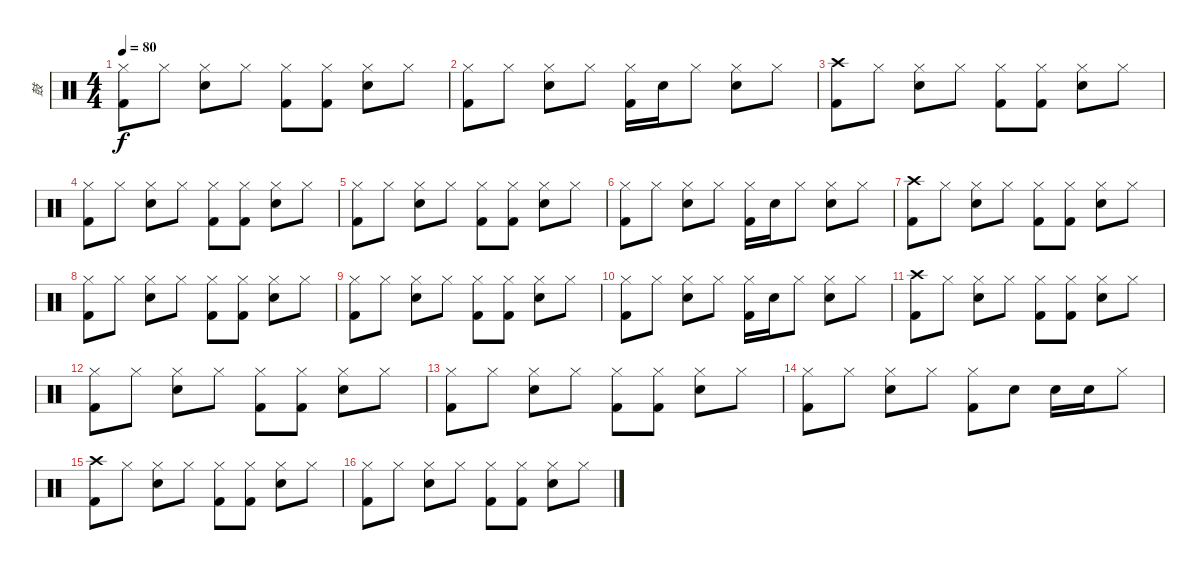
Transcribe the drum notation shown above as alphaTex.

\track ("鼓" "鼓") {instrument percussion}
\staff {score}
\articulation defaults
\ts (4 4)
\tempo 80
\clef neutral
\ks c
("Hi-Hat (closed)" "Kick (hit) 2").8{dy f} "Hi-Hat (closed)".8 ("Hi-Hat (closed)" "Electric Snare (hit)").8 "Hi-Hat (closed)".8 ("Hi-Hat (closed)" "Kick (hit) 2").8 ("Hi-Hat (closed)" "Kick (hit) 2").8 ("Hi-Hat (closed)" "Electric Snare (hit)").8 "Hi-Hat (closed)".8 |
("Hi-Hat (closed)" "Kick (hit) 2").8 "Hi-Hat (closed)".8 ("Hi-Hat (closed)" "Electric Snare (hit)").8 "Hi-Hat (closed)".8 ("Hi-Hat (closed)" "Kick (hit) 2").16 "Electric Snare (hit)".16 "Hi-Hat (closed)".8 ("Hi-Hat (closed)" "Electric Snare (hit)").8 "Hi-Hat (closed)".8 |
("Crash high (hit)" "Kick (hit) 2").8 "Hi-Hat (closed)".8 ("Hi-Hat (closed)" "Electric Snare (hit)").8 "Hi-Hat (closed)".8 ("Hi-Hat (closed)" "Kick (hit) 2").8 ("Hi-Hat (closed)" "Kick (hit) 2").8 ("Hi-Hat (closed)" "Electric Snare (hit)").8 "Hi-Hat (closed)".8 |
("Hi-Hat (closed)" "Kick (hit) 2").8 "Hi-Hat (closed)".8 ("Hi-Hat (closed)" "Electric Snare (hit)").8 "Hi-Hat (closed)".8 ("Hi-Hat (closed)" "Kick (hit) 2").8 ("Hi-Hat (closed)" "Kick (hit) 2").8 ("Hi-Hat (closed)" "Electric Snare (hit)").8 "Hi-Hat (closed)".8 |
("Hi-Hat (closed)" "Kick (hit) 2").8 "Hi-Hat (closed)".8 ("Hi-Hat (closed)" "Electric Snare (hit)").8 "Hi-Hat (closed)".8 ("Hi-Hat (closed)" "Kick (hit) 2").8 ("Hi-Hat (closed)" "Kick (hit) 2").8 ("Hi-Hat (closed)" "Electric Snare (hit)").8 "Hi-Hat (closed)".8 |
("Hi-Hat (closed)" "Kick (hit) 2").8 "Hi-Hat (closed)".8 ("Hi-Hat (closed)" "Electric Snare (hit)").8 "Hi-Hat (closed)".8 ("Hi-Hat (closed)" "Kick (hit) 2").16 "Electric Snare (hit)".16 "Hi-Hat (closed)".8 ("Hi-Hat (closed)" "Electric Snare (hit)").8 "Hi-Hat (closed)".8 |
("Crash high (hit)" "Kick (hit) 2").8 "Hi-Hat (closed)".8 ("Hi-Hat (closed)" "Electric Snare (hit)").8 "Hi-Hat (closed)".8 ("Hi-Hat (closed)" "Kick (hit) 2").8 ("Hi-Hat (closed)" "Kick (hit) 2").8 ("Hi-Hat (closed)" "Electric Snare (hit)").8 "Hi-Hat (closed)".8 |
("Hi-Hat (closed)" "Kick (hit) 2").8 "Hi-Hat (closed)".8 ("Hi-Hat (closed)" "Electric Snare (hit)").8 "Hi-Hat (closed)".8 ("Hi-Hat (closed)" "Kick (hit) 2").8 ("Hi-Hat (closed)" "Kick (hit) 2").8 ("Hi-Hat (closed)" "Electric Snare (hit)").8 "Hi-Hat (closed)".8 |
("Hi-Hat (closed)" "Kick (hit) 2").8 "Hi-Hat (closed)".8 ("Hi-Hat (closed)" "Electric Snare (hit)").8 "Hi-Hat (closed)".8 ("Hi-Hat (closed)" "Kick (hit) 2").8 ("Hi-Hat (closed)" "Kick (hit) 2").8 ("Hi-Hat (closed)" "Electric Snare (hit)").8 "Hi-Hat (closed)".8 |
("Hi-Hat (closed)" "Kick (hit) 2").8 "Hi-Hat (closed)".8 ("Hi-Hat (closed)" "Electric Snare (hit)").8 "Hi-Hat (closed)".8 ("Hi-Hat (closed)" "Kick (hit) 2").16 "Electric Snare (hit)".16 "Hi-Hat (closed)".8 ("Hi-Hat (closed)" "Electric Snare (hit)").8 "Hi-Hat (closed)".8 |
("Crash high (hit)" "Kick (hit) 2").8 "Hi-Hat (closed)".8 ("Hi-Hat (closed)" "Electric Snare (hit)").8 "Hi-Hat (closed)".8 ("Hi-Hat (closed)" "Kick (hit) 2").8 ("Hi-Hat (closed)" "Kick (hit) 2").8 ("Hi-Hat (closed)" "Electric Snare (hit)").8 "Hi-Hat (closed)".8 |
("Hi-Hat (closed)" "Kick (hit) 2").8 "Hi-Hat (closed)".8 ("Hi-Hat (closed)" "Electric Snare (hit)").8 "Hi-Hat (closed)".8 ("Hi-Hat (closed)" "Kick (hit) 2").8 ("Hi-Hat (closed)" "Kick (hit) 2").8 ("Hi-Hat (closed)" "Electric Snare (hit)").8 "Hi-Hat (closed)".8 |
("Hi-Hat (closed)" "Kick (hit) 2").8 "Hi-Hat (closed)".8 ("Hi-Hat (closed)" "Electric Snare (hit)").8 "Hi-Hat (closed)".8 ("Hi-Hat (closed)" "Kick (hit) 2").8 ("Hi-Hat (closed)" "Kick (hit) 2").8 ("Hi-Hat (closed)" "Electric Snare (hit)").8 "Hi-Hat (closed)".8 |
("Hi-Hat (closed)" "Kick (hit) 2").8 "Hi-Hat (closed)".8 ("Hi-Hat (closed)" "Electric Snare (hit)").8 "Hi-Hat (closed)".8 ("Hi-Hat (closed)" "Kick (hit) 2").8 "Electric Snare (hit)".8 "Electric Snare (hit)".16 "Electric Snare (hit)".16 "Hi-Hat (closed)".8 |
("Crash high (hit)" "Kick (hit) 2").8 "Hi-Hat (closed)".8 ("Hi-Hat (closed)" "Electric Snare (hit)").8 "Hi-Hat (closed)".8 ("Hi-Hat (closed)" "Kick (hit) 2").8 ("Hi-Hat (closed)" "Kick (hit) 2").8 ("Hi-Hat (closed)" "Electric Snare (hit)").8 "Hi-Hat (closed)".8 |
("Hi-Hat (closed)" "Kick (hit) 2").8 "Hi-Hat (closed)".8 ("Hi-Hat (closed)" "Electric Snare (hit)").8 "Hi-Hat (closed)".8 ("Hi-Hat (closed)" "Kick (hit) 2").8 ("Hi-Hat (closed)" "Kick (hit) 2").8 ("Hi-Hat (closed)" "Electric Snare (hit)").8 "Hi-Hat (closed)".8
